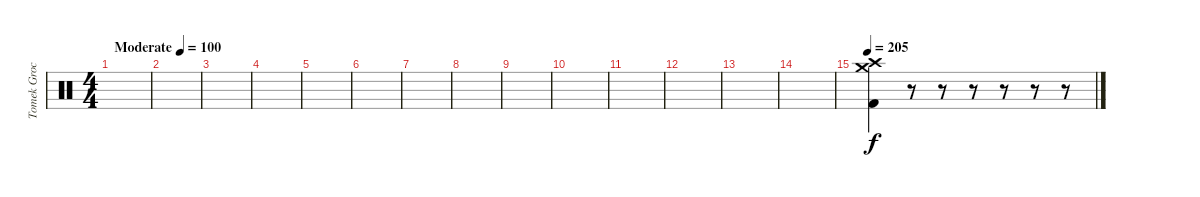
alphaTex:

\track ("Tomek Grochowski" "Tomek Groc") {instrument percussion}
\staff {score}
\articulation defaults
\ts (4 4)
\tempo (100 "Moderate")
\clef neutral
\ks c
|
|
|
|
|
|
|
|
|
|
|
|
|
|
\tempo 200
\tempo 205
("Crash medium (hit)" "Crash high (hit)" "Kick (hit) 2").4 r.8 r.8 r.8 r.8 r.8 r.8
